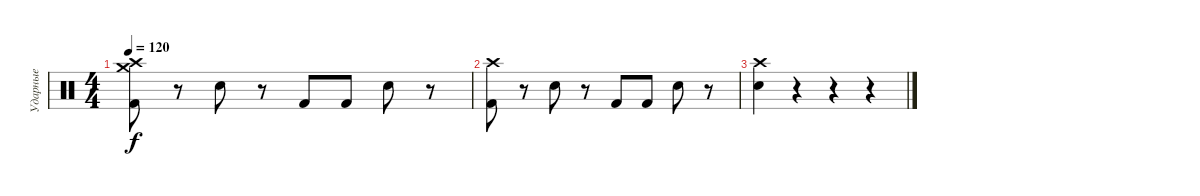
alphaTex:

\track ("Ударные" "Ударные") {instrument percussion}
\staff {score}
\articulation defaults
\ts (4 4)
\tempo 120
\clef neutral
\ks c
("Crash medium (hit)" "Crash high (hit)" "Kick (hit) 2").8{dy f} r.8 "Snare (hit) 2".8 r.8 "Kick (hit) 2".8 "Kick (hit) 2".8 "Snare (hit) 2".8 r.8 |
("Crash high (hit)" "Kick (hit) 2").8 r.8 "Snare (hit) 2".8 r.8 "Kick (hit) 2".8 "Kick (hit) 2".8 "Snare (hit) 2".8 r.8 |
("Crash high (hit)" "Snare (hit) 2").4 r.4 r.4 r.4
